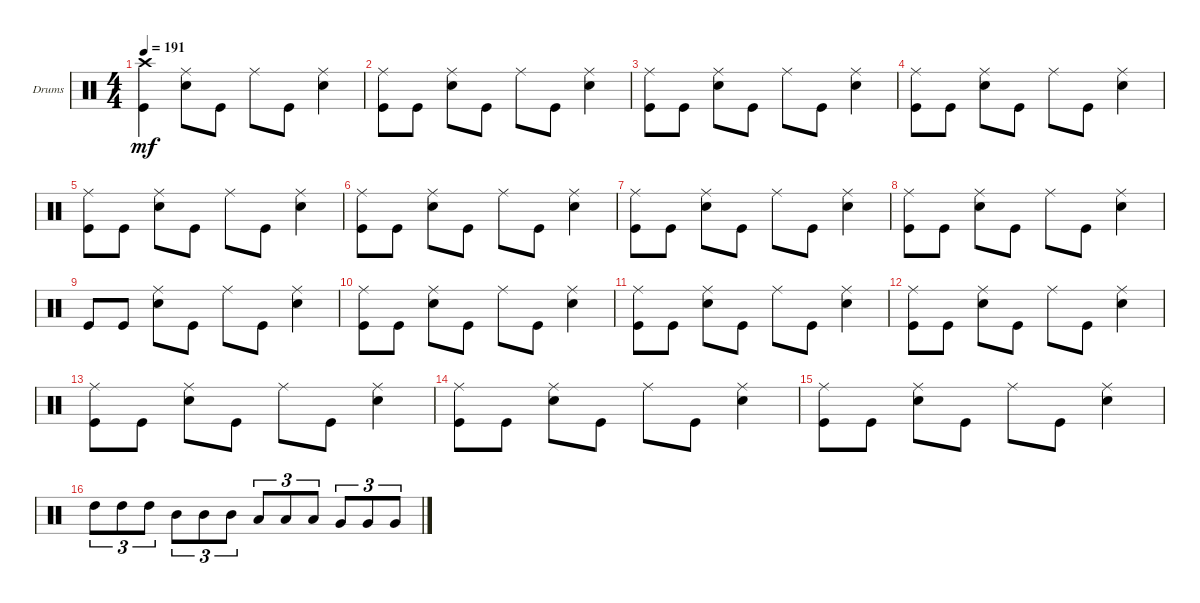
\defaultSystemsLayout 4
\bracketExtendMode groupsimilarinstruments
\firstSystemTrackNameOrientation horizontal
\otherSystemsTrackNameOrientation horizontal
\track ("Drumkit" "Drums") {instrument percussion}
\staff {score}
\articulation defaults
\ts (4 4)
\tempo 191
\clef neutral
\scale
0.333333
\ks c
("Crash high (hit)" "Kick (hit)").4{dy mf} ("Snare (hit) 2" "Ride (middle)").8 "Kick (hit)".8 "Ride (middle)".8 "Kick (hit)".8 ("Snare (hit) 2" "Ride (middle)").4 |
\scale
0.333333 ("Kick (hit)" "Ride (middle)").8 "Kick (hit)".8 ("Snare (hit) 2" "Ride (middle)").8 "Kick (hit)".8 "Ride (middle)".8 "Kick (hit)".8 ("Snare (hit) 2" "Ride (middle)").4 |
\scale
0.333333 ("Kick (hit)" "Ride (middle)").8 "Kick (hit)".8 ("Snare (hit) 2" "Ride (middle)").8 "Kick (hit)".8 "Ride (middle)".8 "Kick (hit)".8 ("Snare (hit) 2" "Ride (middle)").4 |
\scale
0.333333 ("Kick (hit)" "Ride (middle)").8 "Kick (hit)".8 ("Snare (hit) 2" "Ride (middle)").8 "Kick (hit)".8 "Ride (middle)".8 "Kick (hit)".8 ("Snare (hit) 2" "Ride (middle)").4 |
\scale
0.333333 ("Kick (hit)" "Ride (middle)").8 "Kick (hit)".8 ("Snare (hit) 2" "Ride (middle)").8 "Kick (hit)".8 "Ride (middle)".8 "Kick (hit)".8 ("Snare (hit) 2" "Ride (middle)").4 |
\scale
0.333333 ("Kick (hit)" "Ride (middle)").8 "Kick (hit)".8 ("Snare (hit) 2" "Ride (middle)").8 "Kick (hit)".8 "Ride (middle)".8 "Kick (hit)".8 ("Snare (hit) 2" "Ride (middle)").4 |
\scale
0.333333 ("Kick (hit)" "Ride (middle)").8 "Kick (hit)".8 ("Snare (hit) 2" "Ride (middle)").8 "Kick (hit)".8 "Ride (middle)".8 "Kick (hit)".8 ("Snare (hit) 2" "Ride (middle)").4 |
\scale
0.333333 ("Kick (hit)" "Ride (middle)").8 "Kick (hit)".8 ("Snare (hit) 2" "Ride (middle)").8 "Kick (hit)".8 "Ride (middle)".8 "Kick (hit)".8 ("Snare (hit) 2" "Ride (middle)").4 |
\scale
0.333333 "Kick (hit)".8 "Kick (hit)".8 ("Snare (hit) 2" "Ride (middle)").8 "Kick (hit)".8 "Ride (middle)".8 "Kick (hit)".8 ("Snare (hit) 2" "Ride (middle)").4 |
\scale
0.333333 ("Kick (hit)" "Ride (middle)").8 "Kick (hit)".8 ("Snare (hit) 2" "Ride (middle)").8 "Kick (hit)".8 "Ride (middle)".8 "Kick (hit)".8 ("Snare (hit) 2" "Ride (middle)").4 |
\scale
0.333333 ("Kick (hit)" "Ride (middle)").8 "Kick (hit)".8 ("Snare (hit) 2" "Ride (middle)").8 "Kick (hit)".8 "Ride (middle)".8 "Kick (hit)".8 ("Snare (hit) 2" "Ride (middle)").4 |
\scale
0.333333 ("Kick (hit)" "Ride (middle)").8 "Kick (hit)".8 ("Snare (hit) 2" "Ride (middle)").8 "Kick (hit)".8 "Ride (middle)".8 "Kick (hit)".8 ("Snare (hit) 2" "Ride (middle)").4 |
\scale
0.333333 ("Kick (hit)" "Ride (middle)").8 "Kick (hit)".8 ("Snare (hit) 2" "Ride (middle)").8 "Kick (hit)".8 "Ride (middle)".8 "Kick (hit)".8 ("Snare (hit) 2" "Ride (middle)").4 |
\scale
0.333333 ("Kick (hit)" "Ride (middle)").8 "Kick (hit)".8 ("Snare (hit) 2" "Ride (middle)").8 "Kick (hit)".8 "Ride (middle)".8 "Kick (hit)".8 ("Snare (hit) 2" "Ride (middle)").4 |
\scale
0.333333 ("Kick (hit)" "Ride (middle)").8 "Kick (hit)".8 ("Snare (hit) 2" "Ride (middle)").8 "Kick (hit)".8 "Ride (middle)".8 "Kick (hit)".8 ("Snare (hit) 2" "Ride (middle)").4 |
\scale
0.333333 "High Tom (hit)".8{tu (3 2)} "High Tom (hit)".8{tu (3 2)} "High Tom (hit)".8{tu (3 2)} "Mid Tom (hit)".8{tu (3 2)} "Mid Tom (hit)".8{tu (3 2)} "Mid Tom (hit)".8{tu (3 2)} "Low Tom (hit)".8{tu (3 2)} "Low Tom (hit)".8{tu (3 2)} "Low Tom (hit)".8{tu (3 2)} "Very Low Tom (hit)".8{tu (3 2)} "Very Low Tom (hit)".8{tu (3 2)} "Very Low Tom (hit)".8{tu (3 2)}
